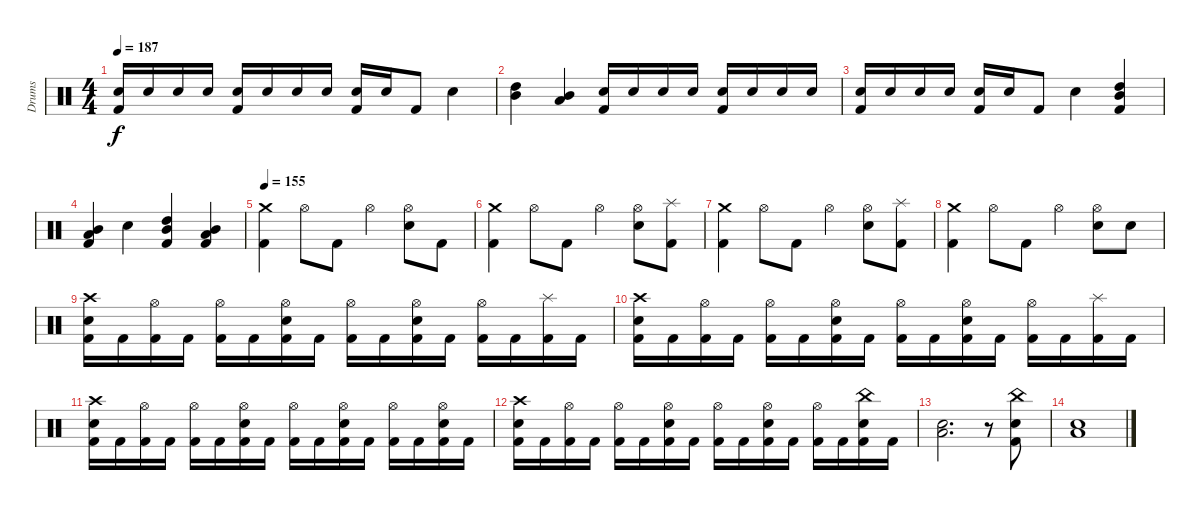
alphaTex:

\track ("Drums" "Drums") {instrument percussion}
\staff {score}
\articulation defaults
\ts (4 4)
\tempo 187
\clef neutral
\ks c
("Electric Snare (hit)" "Kick (hit) 2").16{dy f} "Electric Snare (hit)".16 "Electric Snare (hit)".16 "Electric Snare (hit)".16 ("Electric Snare (hit)" "Kick (hit) 2").16 "Electric Snare (hit)".16 "Electric Snare (hit)".16 "Electric Snare (hit)".16 ("Electric Snare (hit)" "Kick (hit) 2").16 "Electric Snare (hit)".16 "Kick (hit) 2".8 "Electric Snare (hit)".4 |
("High Tom (hit)" "Mid Tom (hit)").4 ("Mid Tom (hit)" "Low Tom (hit)").4 ("Electric Snare (hit)" "Kick (hit) 2").16 "Electric Snare (hit)".16 "Electric Snare (hit)".16 "Electric Snare (hit)".16 ("Electric Snare (hit)" "Kick (hit) 2").16 "Electric Snare (hit)".16 "Electric Snare (hit)".16 "Electric Snare (hit)".16 |
("Electric Snare (hit)" "Kick (hit) 2").16 "Electric Snare (hit)".16 "Electric Snare (hit)".16 "Electric Snare (hit)".16 ("Electric Snare (hit)" "Kick (hit) 2").16 "Electric Snare (hit)".16 "Kick (hit) 2".8 "Electric Snare (hit)".4 ("High Tom (hit)" "Mid Tom (hit)" "Kick (hit) 2").4 |
("Mid Tom (hit)" "Low Tom (hit)" "Kick (hit) 2").4 "Electric Snare (hit)".4 ("High Tom (hit)" "Mid Tom (hit)" "Kick (hit) 2").4 ("Mid Tom (hit)" "Low Tom (hit)" "Kick (hit) 2").4 |
\tempo 155
("Crash medium (hit)" "Kick (hit) 2").4 "Hi-Hat (open)".8 "Kick (hit) 2".8 "Hi-Hat (open)".4 ("Hi-Hat (open)" "Electric Snare (hit)").8 "Kick (hit) 2".8 |
("Crash medium (hit)" "Kick (hit) 2").4 "Hi-Hat (open)".8 "Kick (hit) 2".8 "Hi-Hat (open)".4 ("Hi-Hat (open)" "Electric Snare (hit)").8 ("Splash (hit)" "Kick (hit) 2").8 |
("Crash medium (hit)" "Kick (hit) 2").4 "Hi-Hat (open)".8 "Kick (hit) 2".8 "Hi-Hat (open)".4 ("Hi-Hat (open)" "Electric Snare (hit)").8 ("Splash (hit)" "Kick (hit) 2").8 |
("Crash medium (hit)" "Kick (hit) 2").4 "Hi-Hat (open)".8 "Kick (hit) 2".8 "Hi-Hat (open)".4 ("Hi-Hat (open)" "Electric Snare (hit)").8 "Electric Snare (hit)".8 |
("Crash high (hit)" "Electric Snare (hit)" "Kick (hit) 2").16 "Kick (hit) 2".16 ("Hi-Hat (open)" "Kick (hit) 2").16 "Kick (hit) 2".16 ("Hi-Hat (open)" "Kick (hit) 2").16 "Kick (hit) 2".16 ("Hi-Hat (open)" "Electric Snare (hit)" "Kick (hit) 2").16 "Kick (hit) 2".16 ("Hi-Hat (open)" "Kick (hit) 2").16 "Kick (hit) 2".16 ("Hi-Hat (open)" "Electric Snare (hit)" "Kick (hit) 2").16 "Kick (hit) 2".16 ("Hi-Hat (open)" "Kick (hit) 2").16 "Kick (hit) 2".16 ("Splash (hit)" "Kick (hit) 2").16 "Kick (hit) 2".16 |
("Crash high (hit)" "Electric Snare (hit)" "Kick (hit) 2").16 "Kick (hit) 2".16 ("Hi-Hat (open)" "Kick (hit) 2").16 "Kick (hit) 2".16 ("Hi-Hat (open)" "Kick (hit) 2").16 "Kick (hit) 2".16 ("Hi-Hat (open)" "Electric Snare (hit)" "Kick (hit) 2").16 "Kick (hit) 2".16 ("Hi-Hat (open)" "Kick (hit) 2").16 "Kick (hit) 2".16 ("Hi-Hat (open)" "Electric Snare (hit)" "Kick (hit) 2").16 "Kick (hit) 2".16 ("Hi-Hat (open)" "Kick (hit) 2").16 "Kick (hit) 2".16 ("Splash (hit)" "Kick (hit) 2").16 "Kick (hit) 2".16 |
("Crash high (hit)" "Electric Snare (hit)" "Kick (hit) 2").16 "Kick (hit) 2".16 ("Hi-Hat (open)" "Kick (hit) 2").16 "Kick (hit) 2".16 ("Hi-Hat (open)" "Kick (hit) 2").16 "Kick (hit) 2".16 ("Hi-Hat (open)" "Electric Snare (hit)" "Kick (hit) 2").16 "Kick (hit) 2".16 ("Hi-Hat (open)" "Kick (hit) 2").16 "Kick (hit) 2".16 ("Hi-Hat (open)" "Electric Snare (hit)" "Kick (hit) 2").16 "Kick (hit) 2".16 ("Hi-Hat (open)" "Kick (hit) 2").16 "Kick (hit) 2".16 ("Hi-Hat (open)" "Electric Snare (hit)" "Kick (hit) 2").16 "Kick (hit) 2".16 |
("Crash high (hit)" "Electric Snare (hit)" "Kick (hit) 2").16 "Kick (hit) 2".16 ("Hi-Hat (open)" "Kick (hit) 2").16 "Kick (hit) 2".16 ("Hi-Hat (open)" "Kick (hit) 2").16 "Kick (hit) 2".16 ("Hi-Hat (open)" "Electric Snare (hit)" "Kick (hit) 2").16 "Kick (hit) 2".16 ("Hi-Hat (open)" "Kick (hit) 2").16 "Kick (hit) 2".16 ("Hi-Hat (open)" "Electric Snare (hit)" "Kick (hit) 2").16 "Kick (hit) 2".16 ("Hi-Hat (open)" "Kick (hit) 2").16 "Kick (hit) 2".16 ("China (hit)" "Electric Snare (hit)" "Kick (hit) 2").16 "Kick (hit) 2".16 |
("Electric Snare (hit)" "Low Tom (hit)").2{d} r.8 ("China (hit)" "Electric Snare (hit)" "Kick (hit) 2").8 |
("Electric Snare (hit)" "Low Tom (hit)").1
